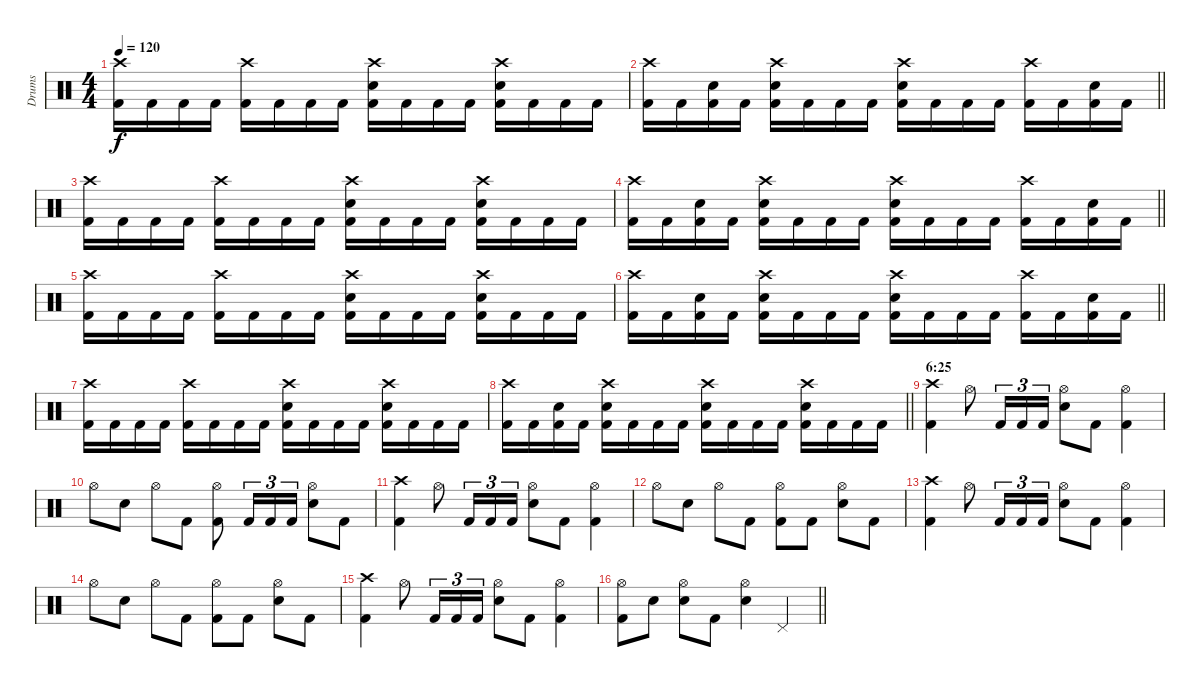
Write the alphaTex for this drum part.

\track ("Drums" "Drums") {instrument percussion}
\staff {score}
\articulation defaults
\ts (4 4)
\tempo 120
\clef neutral
\ks c
("Crash high (hit)" "Kick (hit) 2").16{dy f} "Kick (hit) 2".16 "Kick (hit) 2".16 "Kick (hit) 2".16 ("Crash high (hit)" "Kick (hit) 2").16 "Kick (hit) 2".16 "Kick (hit) 2".16 "Kick (hit) 2".16 ("Crash high (hit)" "Snare (hit) 2" "Kick (hit) 2").16 "Kick (hit) 2".16 "Kick (hit) 2".16 "Kick (hit) 2".16 ("Crash high (hit)" "Snare (hit) 2" "Kick (hit) 2").16 "Kick (hit) 2".16 "Kick (hit) 2".16 "Kick (hit) 2".16 |
\barLineRight lightlight
("Crash high (hit)" "Kick (hit) 2").16 "Kick (hit) 2".16 ("Snare (hit) 2" "Kick (hit) 2").16 "Kick (hit) 2".16 ("Crash high (hit)" "Snare (hit) 2" "Kick (hit) 2").16 "Kick (hit) 2".16 "Kick (hit) 2".16 "Kick (hit) 2".16 ("Crash high (hit)" "Snare (hit) 2" "Kick (hit) 2").16 "Kick (hit) 2".16 "Kick (hit) 2".16 "Kick (hit) 2".16 ("Crash high (hit)" "Kick (hit) 2").16 "Kick (hit) 2".16 ("Snare (hit) 2" "Kick (hit) 2").16 "Kick (hit) 2".16 |
("Crash high (hit)" "Kick (hit) 2").16 "Kick (hit) 2".16 "Kick (hit) 2".16 "Kick (hit) 2".16 ("Crash high (hit)" "Kick (hit) 2").16 "Kick (hit) 2".16 "Kick (hit) 2".16 "Kick (hit) 2".16 ("Crash high (hit)" "Snare (hit) 2" "Kick (hit) 2").16 "Kick (hit) 2".16 "Kick (hit) 2".16 "Kick (hit) 2".16 ("Crash high (hit)" "Snare (hit) 2" "Kick (hit) 2").16 "Kick (hit) 2".16 "Kick (hit) 2".16 "Kick (hit) 2".16 |
\barLineRight lightlight
("Crash high (hit)" "Kick (hit) 2").16 "Kick (hit) 2".16 ("Snare (hit) 2" "Kick (hit) 2").16 "Kick (hit) 2".16 ("Crash high (hit)" "Snare (hit) 2" "Kick (hit) 2").16 "Kick (hit) 2".16 "Kick (hit) 2".16 "Kick (hit) 2".16 ("Crash high (hit)" "Snare (hit) 2" "Kick (hit) 2").16 "Kick (hit) 2".16 "Kick (hit) 2".16 "Kick (hit) 2".16 ("Crash high (hit)" "Kick (hit) 2").16 "Kick (hit) 2".16 ("Snare (hit) 2" "Kick (hit) 2").16 "Kick (hit) 2".16 |
("Crash high (hit)" "Kick (hit) 2").16 "Kick (hit) 2".16 "Kick (hit) 2".16 "Kick (hit) 2".16 ("Crash high (hit)" "Kick (hit) 2").16 "Kick (hit) 2".16 "Kick (hit) 2".16 "Kick (hit) 2".16 ("Crash high (hit)" "Snare (hit) 2" "Kick (hit) 2").16 "Kick (hit) 2".16 "Kick (hit) 2".16 "Kick (hit) 2".16 ("Crash high (hit)" "Snare (hit) 2" "Kick (hit) 2").16 "Kick (hit) 2".16 "Kick (hit) 2".16 "Kick (hit) 2".16 |
\barLineRight lightlight
("Crash high (hit)" "Kick (hit) 2").16 "Kick (hit) 2".16 ("Snare (hit) 2" "Kick (hit) 2").16 "Kick (hit) 2".16 ("Crash high (hit)" "Snare (hit) 2" "Kick (hit) 2").16 "Kick (hit) 2".16 "Kick (hit) 2".16 "Kick (hit) 2".16 ("Crash high (hit)" "Snare (hit) 2" "Kick (hit) 2").16 "Kick (hit) 2".16 "Kick (hit) 2".16 "Kick (hit) 2".16 ("Crash high (hit)" "Kick (hit) 2").16 "Kick (hit) 2".16 ("Snare (hit) 2" "Kick (hit) 2").16 "Kick (hit) 2".16 |
("Crash high (hit)" "Kick (hit) 2").16 "Kick (hit) 2".16 "Kick (hit) 2".16 "Kick (hit) 2".16 ("Crash high (hit)" "Kick (hit) 2").16 "Kick (hit) 2".16 "Kick (hit) 2".16 "Kick (hit) 2".16 ("Crash high (hit)" "Snare (hit) 2" "Kick (hit) 2").16 "Kick (hit) 2".16 "Kick (hit) 2".16 "Kick (hit) 2".16 ("Crash high (hit)" "Snare (hit) 2" "Kick (hit) 2").16 "Kick (hit) 2".16 "Kick (hit) 2".16 "Kick (hit) 2".16 |
\barLineRight lightlight
("Crash high (hit)" "Kick (hit) 2").16 "Kick (hit) 2".16 ("Snare (hit) 2" "Kick (hit) 2").16 "Kick (hit) 2".16 ("Crash high (hit)" "Snare (hit) 2" "Kick (hit) 2").16 "Kick (hit) 2".16 "Kick (hit) 2".16 "Kick (hit) 2".16 ("Crash high (hit)" "Snare (hit) 2" "Kick (hit) 2").16 "Kick (hit) 2".16 "Kick (hit) 2".16 "Kick (hit) 2".16 ("Crash high (hit)" "Snare (hit) 2" "Kick (hit) 2").16 "Kick (hit) 2".16 "Kick (hit) 2".16 "Kick (hit) 2".16 |
\section ("" "6:25")
("Crash high (hit)" "Kick (hit) 2").4 "Hi-Hat (open)".8 "Kick (hit) 2".16{tu (3 2)} "Kick (hit) 2".16{tu (3 2)} "Kick (hit) 2".16{tu (3 2)} ("Hi-Hat (open)" "Snare (hit) 2").8 "Kick (hit) 2".8 ("Hi-Hat (open)" "Kick (hit) 2").4 |
"Hi-Hat (open)".8 "Snare (hit) 2".8 "Hi-Hat (open)".8 "Kick (hit) 2".8 ("Hi-Hat (open)" "Kick (hit) 2").8 "Kick (hit) 2".16{tu (3 2)} "Kick (hit) 2".16{tu (3 2)} "Kick (hit) 2".16{tu (3 2)} ("Hi-Hat (open)" "Snare (hit) 2").8 "Kick (hit) 2".8 |
("Crash high (hit)" "Kick (hit) 2").4 "Hi-Hat (open)".8 "Kick (hit) 2".16{tu (3 2)} "Kick (hit) 2".16{tu (3 2)} "Kick (hit) 2".16{tu (3 2)} ("Hi-Hat (open)" "Snare (hit) 2").8 "Kick (hit) 2".8 ("Hi-Hat (open)" "Kick (hit) 2").4 |
"Hi-Hat (open)".8 "Snare (hit) 2".8 "Hi-Hat (open)".8 "Kick (hit) 2".8 ("Hi-Hat (open)" "Kick (hit) 2").8 "Kick (hit) 2".8 ("Hi-Hat (open)" "Snare (hit) 2").8 "Kick (hit) 2".8 |
("Crash high (hit)" "Kick (hit) 2").4 "Hi-Hat (open)".8 "Kick (hit) 2".16{tu (3 2)} "Kick (hit) 2".16{tu (3 2)} "Kick (hit) 2".16{tu (3 2)} ("Hi-Hat (open)" "Snare (hit) 2").8 "Kick (hit) 2".8 ("Hi-Hat (open)" "Kick (hit) 2").4 |
"Hi-Hat (open)".8 "Snare (hit) 2".8 "Hi-Hat (open)".8 "Kick (hit) 2".8 ("Hi-Hat (open)" "Kick (hit) 2").8 "Kick (hit) 2".8 ("Hi-Hat (open)" "Snare (hit) 2").8 "Kick (hit) 2".8 |
("Crash high (hit)" "Kick (hit) 2").4 "Hi-Hat (open)".8 "Kick (hit) 2".16{tu (3 2)} "Kick (hit) 2".16{tu (3 2)} "Kick (hit) 2".16{tu (3 2)} ("Hi-Hat (open)" "Snare (hit) 2").8 "Kick (hit) 2".8 ("Hi-Hat (open)" "Kick (hit) 2").4 |
\barLineRight lightlight
("Hi-Hat (open)" "Kick (hit) 2").8 "Snare (hit) 2".8 ("Hi-Hat (open)" "Snare (hit) 2").8 "Kick (hit) 2".8 ("Hi-Hat (open)" "Snare (hit) 2").4 "Pedal Hi-Hat (hit)".4
